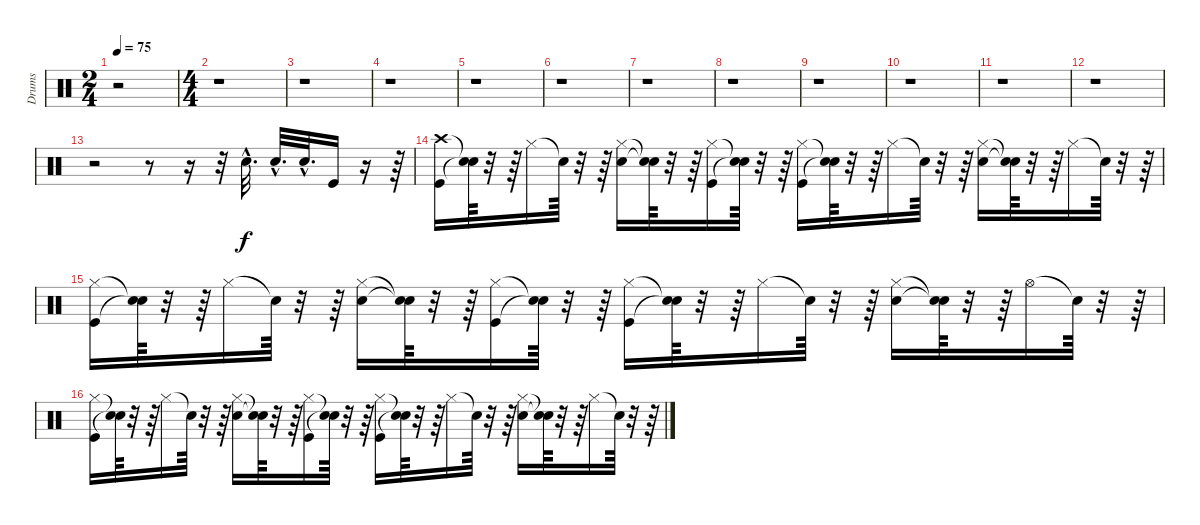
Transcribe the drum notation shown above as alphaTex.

\track ("Drums" "Drums") {instrument percussion}
\staff {score}
\articulation defaults
\ts (2 4)
\tempo 75
\clef neutral
\ks c
r.2{dy f} |
\ts (4 4)
r.1 |
r.1 |
r.1 |
r.1 |
r.1 |
r.1 |
r.1 |
r.1 |
r.1 |
r.1 |
r.1 |
r.2 r.8 r.16 r.32 "Snare (hit) 2"{hac}.32{d} "Snare (hit) 2"{hac}.32{d} "Snare (hit) 2"{hac}.32{d} "Kick (hit)".16 r.16 r.64 |
("Crash high (hit)" "Kick (hit)").16 ("Snare (hit)"{t} "Snare (hit)"{t}).64 r.32 r.64 "Hi-Hat (closed)".16 "Snare (hit)"{t}.64 r.32 r.64 ("Hi-Hat (closed)" "Snare (hit) 2").16 ("Snare (hit)"{t} "Snare (hit)"{t}).64 r.32 r.64 ("Hi-Hat (closed)" "Kick (hit)").16 ("Snare (hit)"{t} "Snare (hit)"{t}).64 r.32 r.64 ("Hi-Hat (closed)" "Kick (hit)").16 ("Snare (hit)"{t} "Snare (hit)"{t}).64 r.32 r.64 "Hi-Hat (closed)".16 "Snare (hit)"{t}.64 r.32 r.64 ("Hi-Hat (closed)" "Snare (hit) 2").16 ("Snare (hit)"{t} "Snare (hit)"{t}).64 r.32 r.64 "Hi-Hat (closed)".16 "Snare (hit)"{t}.64 r.32 r.64 |
("Hi-Hat (closed)" "Kick (hit)").16 ("Snare (hit)"{t} "Snare (hit)"{t}).64 r.32 r.64 "Hi-Hat (closed)".16 "Snare (hit)"{t}.64 r.32 r.64 ("Hi-Hat (closed)" "Snare (hit) 2").16 ("Snare (hit)"{t} "Snare (hit)"{t}).64 r.32 r.64 ("Hi-Hat (closed)" "Kick (hit)").16 ("Snare (hit)"{t} "Snare (hit)"{t}).64 r.32 r.64 ("Hi-Hat (closed)" "Kick (hit)").16 ("Snare (hit)"{t} "Snare (hit)"{t}).64 r.32 r.64 "Hi-Hat (closed)".16 "Snare (hit)"{t}.64 r.32 r.64 ("Hi-Hat (closed)" "Snare (hit) 2").16 ("Snare (hit)"{t} "Snare (hit)"{t}).64 r.32 r.64 "Hi-Hat (open)".16 "Snare (hit)"{t}.64 r.32 r.64 |
("Hi-Hat (closed)" "Kick (hit)").16 ("Snare (hit)"{t} "Snare (hit)"{t}).64 r.32 r.64 "Hi-Hat (closed)".16 "Snare (hit)"{t}.64 r.32 r.64 ("Hi-Hat (closed)" "Snare (hit) 2").16 ("Snare (hit)"{t} "Snare (hit)"{t}).64 r.32 r.64 ("Hi-Hat (closed)" "Kick (hit)").16 ("Snare (hit)"{t} "Snare (hit)"{t}).64 r.32 r.64 ("Hi-Hat (closed)" "Kick (hit)").16 ("Snare (hit)"{t} "Snare (hit)"{t}).64 r.32 r.64 "Hi-Hat (closed)".16 "Snare (hit)"{t}.64 r.32 r.64 ("Hi-Hat (closed)" "Snare (hit) 2").16 ("Snare (hit)"{t} "Snare (hit)"{t}).64 r.32 r.64 "Hi-Hat (closed)".16 "Snare (hit)"{t}.64 r.32 r.64
